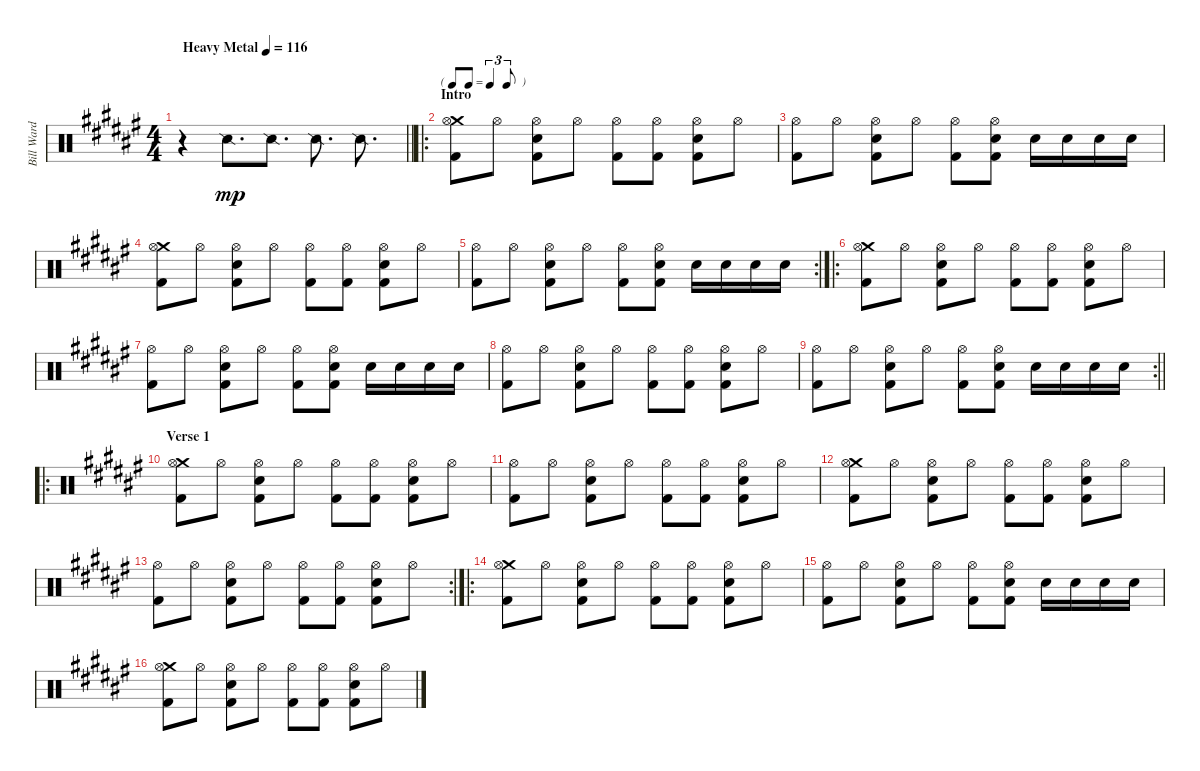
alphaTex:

\track ("Bill Ward" "Bill Ward") {instrument percussion}
\staff {score}
\articulation defaults
\ts (4 4)
\tempo (116 "Heavy Metal")
\clef neutral
\barLineRight lightlight
\ks f#
r.4{dy mp} "Snare (side stick) 2".8{d} "Snare (side stick) 2".8{d} "Snare (side stick) 2".8{d} "Snare (side stick) 2".8{d} |
\ro
\tf triplet8th
\section ("" "Intro")
("Crash medium (hit)" "Hi-Hat (open)" "Kick (hit) 2").8 "Hi-Hat (open)".8 ("Hi-Hat (open)" "Snare (hit) 2" "Kick (hit) 2").8 "Hi-Hat (open)".8 ("Hi-Hat (open)" "Kick (hit) 2").8 ("Hi-Hat (open)" "Kick (hit) 2").8 ("Hi-Hat (open)" "Snare (hit) 2" "Kick (hit) 2").8 "Hi-Hat (open)".8 |
("Hi-Hat (open)" "Kick (hit) 2").8 "Hi-Hat (open)".8 ("Hi-Hat (open)" "Snare (hit) 2" "Kick (hit) 2").8 "Hi-Hat (open)".8 ("Hi-Hat (open)" "Kick (hit) 2").8 ("Hi-Hat (open)" "Snare (hit) 2" "Kick (hit) 2").8 "Snare (hit) 2".16 "Snare (hit) 2".16 "Snare (hit) 2".16 "Snare (hit) 2".16 |
("Crash medium (hit)" "Hi-Hat (open)" "Kick (hit) 2").8 "Hi-Hat (open)".8 ("Hi-Hat (open)" "Snare (hit) 2" "Kick (hit) 2").8 "Hi-Hat (open)".8 ("Hi-Hat (open)" "Kick (hit) 2").8 ("Hi-Hat (open)" "Kick (hit) 2").8 ("Hi-Hat (open)" "Snare (hit) 2" "Kick (hit) 2").8 "Hi-Hat (open)".8 |
\rc 2
("Hi-Hat (open)" "Kick (hit) 2").8 "Hi-Hat (open)".8 ("Hi-Hat (open)" "Snare (hit) 2" "Kick (hit) 2").8 "Hi-Hat (open)".8 ("Hi-Hat (open)" "Kick (hit) 2").8 ("Hi-Hat (open)" "Snare (hit) 2" "Kick (hit) 2").8 "Snare (hit) 2".16 "Snare (hit) 2".16 "Snare (hit) 2".16 "Snare (hit) 2".16 |
\ro
("Crash medium (hit)" "Hi-Hat (open)" "Kick (hit) 2").8 "Hi-Hat (open)".8 ("Hi-Hat (open)" "Snare (hit) 2" "Kick (hit) 2").8 "Hi-Hat (open)".8 ("Hi-Hat (open)" "Kick (hit) 2").8 ("Hi-Hat (open)" "Kick (hit) 2").8 ("Hi-Hat (open)" "Snare (hit) 2" "Kick (hit) 2").8 "Hi-Hat (open)".8 |
("Hi-Hat (open)" "Kick (hit) 2").8 "Hi-Hat (open)".8 ("Hi-Hat (open)" "Snare (hit) 2" "Kick (hit) 2").8 "Hi-Hat (open)".8 ("Hi-Hat (open)" "Kick (hit) 2").8 ("Hi-Hat (open)" "Snare (hit) 2" "Kick (hit) 2").8 "Snare (hit) 2".16 "Snare (hit) 2".16 "Snare (hit) 2".16 "Snare (hit) 2".16 |
("Hi-Hat (open)" "Kick (hit) 2").8 "Hi-Hat (open)".8 ("Hi-Hat (open)" "Snare (hit) 2" "Kick (hit) 2").8 "Hi-Hat (open)".8 ("Hi-Hat (open)" "Kick (hit) 2").8 ("Hi-Hat (open)" "Kick (hit) 2").8 ("Hi-Hat (open)" "Snare (hit) 2" "Kick (hit) 2").8 "Hi-Hat (open)".8 |
\rc 2
\barLineRight lightlight
("Hi-Hat (open)" "Kick (hit) 2").8 "Hi-Hat (open)".8 ("Hi-Hat (open)" "Snare (hit) 2" "Kick (hit) 2").8 "Hi-Hat (open)".8 ("Hi-Hat (open)" "Kick (hit) 2").8 ("Hi-Hat (open)" "Snare (hit) 2" "Kick (hit) 2").8 "Snare (hit) 2".16 "Snare (hit) 2".16 "Snare (hit) 2".16 "Snare (hit) 2".16 |
\ro
\section ("" "Verse 1")
("Crash medium (hit)" "Hi-Hat (open)" "Kick (hit) 2").8 "Hi-Hat (open)".8 ("Hi-Hat (open)" "Snare (hit) 2" "Kick (hit) 2").8 "Hi-Hat (open)".8 ("Hi-Hat (open)" "Kick (hit) 2").8 ("Hi-Hat (open)" "Kick (hit) 2").8 ("Hi-Hat (open)" "Snare (hit) 2" "Kick (hit) 2").8 "Hi-Hat (open)".8 |
("Hi-Hat (open)" "Kick (hit) 2").8 "Hi-Hat (open)".8 ("Hi-Hat (open)" "Snare (hit) 2" "Kick (hit) 2").8 "Hi-Hat (open)".8 ("Hi-Hat (open)" "Kick (hit) 2").8 ("Hi-Hat (open)" "Kick (hit) 2").8 ("Hi-Hat (open)" "Snare (hit) 2" "Kick (hit) 2").8 "Hi-Hat (open)".8 |
("Crash medium (hit)" "Hi-Hat (open)" "Kick (hit) 2").8 "Hi-Hat (open)".8 ("Hi-Hat (open)" "Snare (hit) 2" "Kick (hit) 2").8 "Hi-Hat (open)".8 ("Hi-Hat (open)" "Kick (hit) 2").8 ("Hi-Hat (open)" "Kick (hit) 2").8 ("Hi-Hat (open)" "Snare (hit) 2" "Kick (hit) 2").8 "Hi-Hat (open)".8 |
\rc 2
("Hi-Hat (open)" "Kick (hit) 2").8 "Hi-Hat (open)".8 ("Hi-Hat (open)" "Snare (hit) 2" "Kick (hit) 2").8 "Hi-Hat (open)".8 ("Hi-Hat (open)" "Kick (hit) 2").8 ("Hi-Hat (open)" "Kick (hit) 2").8 ("Hi-Hat (open)" "Snare (hit) 2" "Kick (hit) 2").8 "Hi-Hat (open)".8 |
\ro
("Crash medium (hit)" "Hi-Hat (open)" "Kick (hit) 2").8 "Hi-Hat (open)".8 ("Hi-Hat (open)" "Snare (hit) 2" "Kick (hit) 2").8 "Hi-Hat (open)".8 ("Hi-Hat (open)" "Kick (hit) 2").8 ("Hi-Hat (open)" "Kick (hit) 2").8 ("Hi-Hat (open)" "Snare (hit) 2" "Kick (hit) 2").8 "Hi-Hat (open)".8 |
("Hi-Hat (open)" "Kick (hit) 2").8 "Hi-Hat (open)".8 ("Hi-Hat (open)" "Snare (hit) 2" "Kick (hit) 2").8 "Hi-Hat (open)".8 ("Hi-Hat (open)" "Kick (hit) 2").8 ("Hi-Hat (open)" "Snare (hit) 2" "Kick (hit) 2").8 "Snare (hit) 2".16 "Snare (hit) 2".16 "Snare (hit) 2".16 "Snare (hit) 2".16 |
("Crash medium (hit)" "Hi-Hat (open)" "Kick (hit) 2").8 "Hi-Hat (open)".8 ("Hi-Hat (open)" "Snare (hit) 2" "Kick (hit) 2").8 "Hi-Hat (open)".8 ("Hi-Hat (open)" "Kick (hit) 2").8 ("Hi-Hat (open)" "Kick (hit) 2").8 ("Hi-Hat (open)" "Snare (hit) 2" "Kick (hit) 2").8 "Hi-Hat (open)".8
